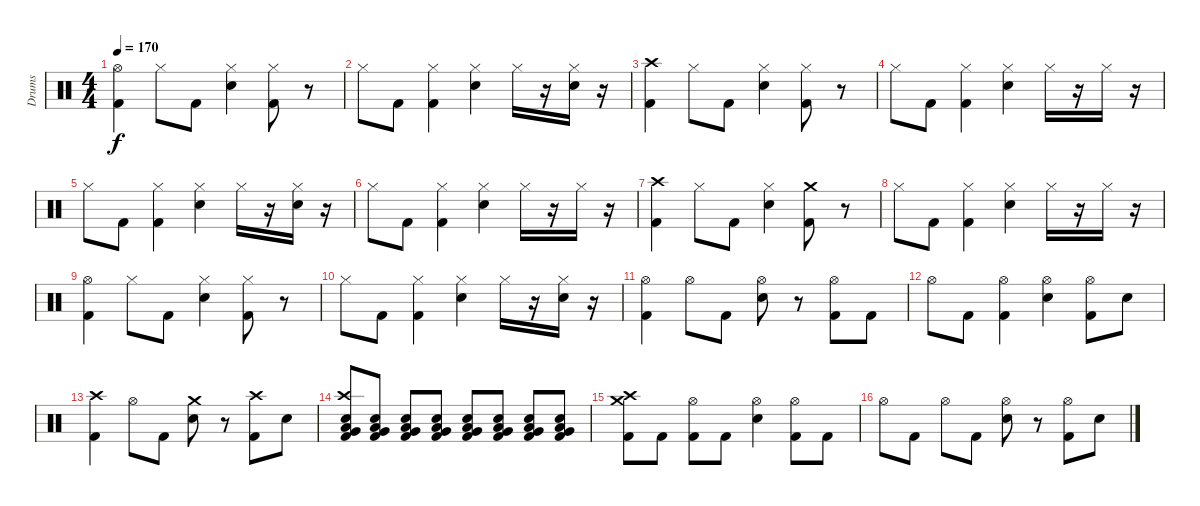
\track ("Drums" "Drums") {instrument percussion}
\staff {score}
\articulation defaults
\ts (4 4)
\tempo 170
\clef neutral
\ks c
("Hi-Hat (open)" "Kick (hit) 2").4{dy f} "Hi-Hat (closed)".8 "Kick (hit) 2".8 ("Hi-Hat (closed)" "Snare (hit) 2").4 ("Hi-Hat (closed)" "Kick (hit) 2").8 r.8 |
"Hi-Hat (closed)".8 "Kick (hit) 2".8 ("Hi-Hat (closed)" "Kick (hit) 2").4 ("Hi-Hat (closed)" "Snare (hit) 2").4 "Hi-Hat (closed)".16 r.16 ("Hi-Hat (closed)" "Snare (hit) 2").16 r.16 |
("Crash high (hit)" "Kick (hit) 2").4 "Hi-Hat (closed)".8 "Kick (hit) 2".8 ("Hi-Hat (closed)" "Snare (hit) 2").4 ("Hi-Hat (closed)" "Kick (hit) 2").8 r.8 |
"Hi-Hat (closed)".8 "Kick (hit) 2".8 ("Hi-Hat (closed)" "Kick (hit) 2").4 ("Hi-Hat (closed)" "Snare (hit) 2").4 "Hi-Hat (closed)".16 r.16 "Hi-Hat (closed)".16 r.16 |
"Hi-Hat (closed)".8 "Kick (hit) 2".8 ("Hi-Hat (closed)" "Kick (hit) 2").4 ("Hi-Hat (closed)" "Snare (hit) 2").4 "Hi-Hat (closed)".16 r.16 ("Hi-Hat (closed)" "Snare (hit) 2").16 r.16 |
"Hi-Hat (closed)".8 "Kick (hit) 2".8 ("Hi-Hat (closed)" "Kick (hit) 2").4 ("Hi-Hat (closed)" "Snare (hit) 2").4 "Hi-Hat (closed)".16 r.16 "Hi-Hat (closed)".16 r.16 |
("Crash high (hit)" "Kick (hit) 2").4 "Hi-Hat (closed)".8 "Kick (hit) 2".8 ("Hi-Hat (closed)" "Snare (hit) 2").4 ("Crash medium (hit)" "Kick (hit) 2").8 r.8 |
"Hi-Hat (closed)".8 "Kick (hit) 2".8 ("Hi-Hat (closed)" "Kick (hit) 2").4 ("Hi-Hat (closed)" "Snare (hit) 2").4 "Hi-Hat (closed)".16 r.16 "Hi-Hat (closed)".16 r.16 |
("Hi-Hat (open)" "Kick (hit) 2").4 "Hi-Hat (closed)".8 "Kick (hit) 2".8 ("Hi-Hat (closed)" "Snare (hit) 2").4 ("Hi-Hat (closed)" "Kick (hit) 2").8 r.8 |
"Hi-Hat (closed)".8 "Kick (hit) 2".8 ("Hi-Hat (closed)" "Kick (hit) 2").4 ("Hi-Hat (closed)" "Snare (hit) 2").4 "Hi-Hat (closed)".16 r.16 ("Hi-Hat (closed)" "Snare (hit) 2").16 r.16 |
("Hi-Hat (open)" "Kick (hit) 2").4 "Hi-Hat (open)".8 "Kick (hit) 2".8 ("Hi-Hat (open)" "Snare (hit) 2").8 r.8 ("Hi-Hat (open)" "Kick (hit) 2").8 "Kick (hit) 2".8 |
"Hi-Hat (open)".8 "Kick (hit) 2".8 ("Hi-Hat (open)" "Kick (hit) 2").4 ("Hi-Hat (open)" "Snare (hit) 2").4 ("Hi-Hat (open)" "Kick (hit) 2").8 "Snare (hit) 2".8 |
("Crash high (hit)" "Kick (hit) 2").4 "Hi-Hat (open)".8 "Kick (hit) 2".8 ("Crash medium (hit)" "Snare (hit) 2").8 r.8 ("Crash high (hit)" "Kick (hit) 2").8 "Snare (hit) 2".8{volume 8} |
("Crash high (hit)" "Very Low Tom (hit)" "Snare (hit) 2" "Low Tom (hit)" "Kick (hit) 2").8{volume 13} ("Very Low Tom (hit)" "Snare (hit) 2" "Low Tom (hit)" "Kick (hit) 2").8 ("Very Low Tom (hit)" "Snare (hit) 2" "Low Tom (hit)" "Kick (hit) 2").8 ("Very Low Tom (hit)" "Snare (hit) 2" "Low Tom (hit)" "Kick (hit) 2").8 ("Very Low Tom (hit)" "Snare (hit) 2" "Low Tom (hit)" "Kick (hit) 2").8 ("Very Low Tom (hit)" "Snare (hit) 2" "Low Tom (hit)" "Kick (hit) 2").8 ("Very Low Tom (hit)" "Snare (hit) 2" "Low Tom (hit)" "Kick (hit) 2").8 ("Very Low Tom (hit)" "Snare (hit) 2" "Low Tom (hit)" "Kick (hit) 2").8 |
("Crash medium (hit)" "Crash high (hit)" "Kick (hit) 2").8 "Kick (hit) 2".8 ("Hi-Hat (open)" "Kick (hit) 2").8 "Kick (hit) 2".8 ("Hi-Hat (open)" "Snare (hit) 2").4 ("Hi-Hat (open)" "Kick (hit) 2").8 "Kick (hit) 2".8 |
"Hi-Hat (open)".8 "Kick (hit) 2".8 "Hi-Hat (open)".8 "Kick (hit) 2".8 ("Hi-Hat (open)" "Snare (hit) 2").8 r.8 ("Hi-Hat (open)" "Kick (hit) 2").8 "Snare (hit) 2".8
